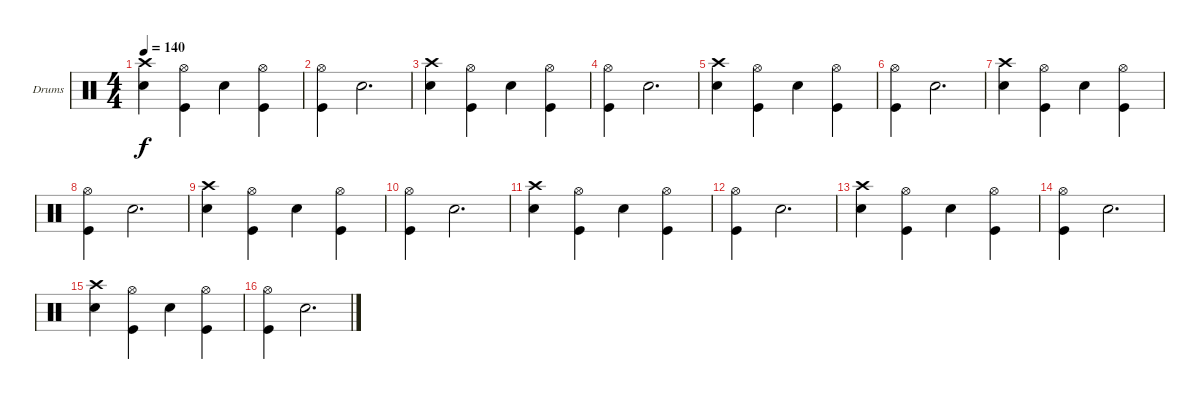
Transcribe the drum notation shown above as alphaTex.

\bracketExtendMode groupsimilarinstruments
\firstSystemTrackNameOrientation horizontal
\otherSystemsTrackNameOrientation horizontal
\track ("Batterie - Anders Johansson" "Drums") {instrument percussion}
\staff {score}
\articulation defaults
\ts (4 4)
\tempo 140
\clef neutral
\ks c
("Crash high (hit)" "Snare (hit) 2").4{dy f} ("Hi-Hat (open)" "Kick (hit)").4 "Snare (hit) 2".4 ("Hi-Hat (open)" "Kick (hit)").4 |
("Hi-Hat (open)" "Kick (hit)").4 "Snare (hit) 2".2{d} |
("Crash high (hit)" "Snare (hit) 2").4 ("Hi-Hat (open)" "Kick (hit)").4 "Snare (hit) 2".4 ("Hi-Hat (open)" "Kick (hit)").4 |
("Hi-Hat (open)" "Kick (hit)").4 "Snare (hit) 2".2{d} |
("Crash high (hit)" "Snare (hit) 2").4 ("Hi-Hat (open)" "Kick (hit)").4 "Snare (hit) 2".4 ("Hi-Hat (open)" "Kick (hit)").4 |
("Hi-Hat (open)" "Kick (hit)").4 "Snare (hit) 2".2{d} |
("Crash high (hit)" "Snare (hit) 2").4 ("Hi-Hat (open)" "Kick (hit)").4 "Snare (hit) 2".4 ("Hi-Hat (open)" "Kick (hit)").4 |
("Hi-Hat (open)" "Kick (hit)").4 "Snare (hit) 2".2{d} |
("Crash high (hit)" "Snare (hit) 2").4 ("Hi-Hat (open)" "Kick (hit)").4 "Snare (hit) 2".4 ("Hi-Hat (open)" "Kick (hit)").4 |
("Hi-Hat (open)" "Kick (hit)").4 "Snare (hit) 2".2{d} |
("Crash high (hit)" "Snare (hit) 2").4 ("Hi-Hat (open)" "Kick (hit)").4 "Snare (hit) 2".4 ("Hi-Hat (open)" "Kick (hit)").4 |
("Hi-Hat (open)" "Kick (hit)").4 "Snare (hit) 2".2{d} |
("Crash high (hit)" "Snare (hit) 2").4 ("Hi-Hat (open)" "Kick (hit)").4 "Snare (hit) 2".4 ("Hi-Hat (open)" "Kick (hit)").4 |
("Hi-Hat (open)" "Kick (hit)").4 "Snare (hit) 2".2{d} |
("Crash high (hit)" "Snare (hit) 2").4 ("Hi-Hat (open)" "Kick (hit)").4 "Snare (hit) 2".4 ("Hi-Hat (open)" "Kick (hit)").4 |
("Hi-Hat (open)" "Kick (hit)").4 "Snare (hit) 2".2{d}
